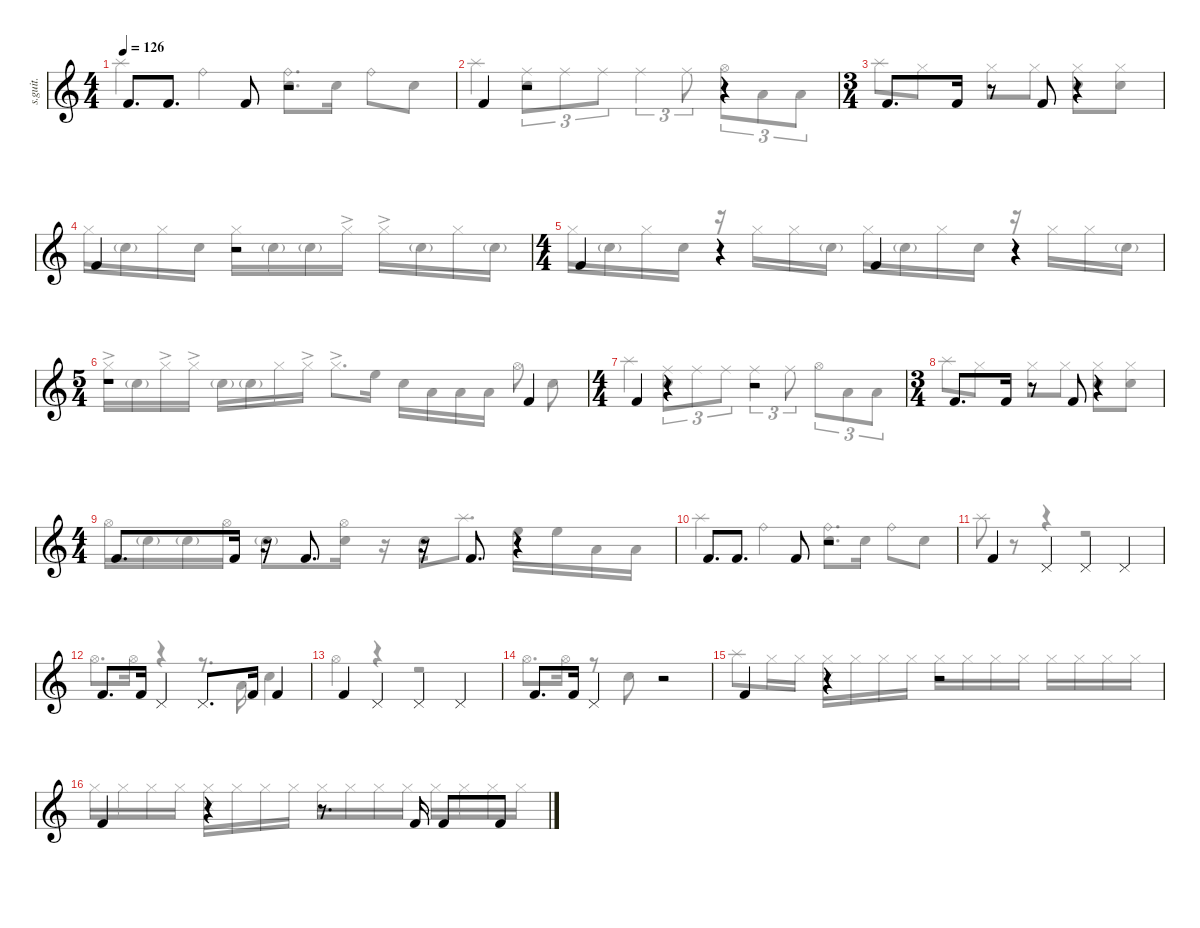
\defaultSystemsLayout 4
\hideDynamics
\bracketExtendMode nobrackets
\track ("Percussion" "s.guit.") {instrument percussion}
\staff {score}
\articulation defaults
\voice
\ts (4 4)
\tempo 126
\clef g2
\ks c "Kick (hit) 2".8{d lyrics (0 "") lyrics (1 "") lyrics (2 "") lyrics (3 "") lyrics (4 "") dy mf} "Kick (hit) 2".8{d lyrics (0 "") lyrics (1 "") lyrics (2 "") lyrics (3 "") lyrics (4 "")} "Kick (hit) 2".8{lyrics (0 "") lyrics (1 "") lyrics (2 "") lyrics (3 "") lyrics (4 "")}
r.2 |
"Kick (hit) 2".4{lyrics (0 "") lyrics (1 "") lyrics (2 "") lyrics (3 "") lyrics (4 "")} r.2 r.4 |
\ts (3 4)
\beaming (8 2 2 2 2)
"Kick (hit) 2".8{d lyrics (0 "") lyrics (1 "") lyrics (2 "") lyrics (3 "") lyrics (4 "")} "Kick (hit) 2".16{lyrics (0 "") lyrics (1 "") lyrics (2 "") lyrics (3 "") lyrics (4 "")} r.8 "Kick (hit) 2".8{lyrics (0 "") lyrics (1 "") lyrics (2 "") lyrics (3 "") lyrics (4 "")} r.4 |
"Kick (hit) 2".4{lyrics (0 "") lyrics (1 "") lyrics (2 "") lyrics (3 "") lyrics (4 "")} r.2 |
\ts (4 4)
\beaming (8 2 2 2 2)
"Kick (hit) 2".4{lyrics (0 "") lyrics (1 "") lyrics (2 "") lyrics (3 "") lyrics (4 "")} r.4 "Kick (hit) 2".4{lyrics (0 "") lyrics (1 "") lyrics (2 "") lyrics (3 "") lyrics (4 "")} r.4 |
\ts (5 4)
\beaming (8 2 2 2 2)
r.1 "Kick (hit) 2".4{lyrics (0 "") lyrics (1 "") lyrics (2 "") lyrics (3 "") lyrics (4 "")} |
\ts (4 4)
\beaming (8 2 2 2 2)
"Kick (hit) 2".4{lyrics (0 "") lyrics (1 "") lyrics (2 "") lyrics (3 "") lyrics (4 "")} r.4 r.2 |
\ts (3 4)
\beaming (8 2 2 2 2)
"Kick (hit) 2".8{d lyrics (0 "") lyrics (1 "") lyrics (2 "") lyrics (3 "") lyrics (4 "")} "Kick (hit) 2".16{lyrics (0 "") lyrics (1 "") lyrics (2 "") lyrics (3 "") lyrics (4 "")} r.8 "Kick (hit) 2".8{lyrics (0 "") lyrics (1 "") lyrics (2 "") lyrics (3 "") lyrics (4 "")} r.4 |
\ts (4 4)
\beaming (8 2 2 2 2)
"Kick (hit) 2".8{d lyrics (0 "") lyrics (1 "") lyrics (2 "") lyrics (3 "") lyrics (4 "")} "Kick (hit) 2".16{lyrics (0 "") lyrics (1 "") lyrics (2 "") lyrics (3 "") lyrics (4 "")} r.16 "Kick (hit) 2".8{d lyrics (0 "") lyrics (1 "") lyrics (2 "") lyrics (3 "") lyrics (4 "")} r.16 "Kick (hit) 2".8{d lyrics (0 "") lyrics (1 "") lyrics (2 "") lyrics (3 "") lyrics (4 "")} r.4 |
"Kick (hit) 2".8{d lyrics (0 "") lyrics (1 "") lyrics (2 "") lyrics (3 "") lyrics (4 "")} "Kick (hit) 2".8{d lyrics (0 "") lyrics (1 "") lyrics (2 "") lyrics (3 "") lyrics (4 "")} "Kick (hit) 2".8{lyrics (0 "") lyrics (1 "") lyrics (2 "") lyrics (3 "") lyrics (4 "")} r.2 |
"Kick (hit) 2".4{lyrics (0 "") lyrics (1 "") lyrics (2 "") lyrics (3 "") lyrics (4 "")} "Pedal Hi-Hat (hit)".4{lyrics (0 "") lyrics (1 "") lyrics (2 "") lyrics (3 "") lyrics (4 "")} "Pedal Hi-Hat (hit)".4{lyrics (0 "") lyrics (1 "") lyrics (2 "") lyrics (3 "") lyrics (4 "")} "Pedal Hi-Hat (hit)".4{lyrics (0 "") lyrics (1 "") lyrics (2 "") lyrics (3 "") lyrics (4 "")} |
"Kick (hit) 2".8{d lyrics (0 "") lyrics (1 "") lyrics (2 "") lyrics (3 "") lyrics (4 "")} "Kick (hit) 2".16{lyrics (0 "") lyrics (1 "") lyrics (2 "") lyrics (3 "") lyrics (4 "")} "Pedal Hi-Hat (hit)".4{lyrics (0 "") lyrics (1 "") lyrics (2 "") lyrics (3 "") lyrics (4 "")} "Pedal Hi-Hat (hit)".8{d lyrics (0 "") lyrics (1 "") lyrics (2 "") lyrics (3 "") lyrics (4 "")} "Kick (hit) 2".16{lyrics (0 "") lyrics (1 "") lyrics (2 "") lyrics (3 "") lyrics (4 "")} "Kick (hit) 2".4{lyrics (0 "") lyrics (1 "") lyrics (2 "") lyrics (3 "") lyrics (4 "")} |
"Kick (hit) 2".4{lyrics (0 "") lyrics (1 "") lyrics (2 "") lyrics (3 "") lyrics (4 "")} "Pedal Hi-Hat (hit)".4{lyrics (0 "") lyrics (1 "") lyrics (2 "") lyrics (3 "") lyrics (4 "")} "Pedal Hi-Hat (hit)".4{lyrics (0 "") lyrics (1 "") lyrics (2 "") lyrics (3 "") lyrics (4 "")} "Pedal Hi-Hat (hit)".4{lyrics (0 "") lyrics (1 "") lyrics (2 "") lyrics (3 "") lyrics (4 "")} |
"Kick (hit) 2".8{d lyrics (0 "") lyrics (1 "") lyrics (2 "") lyrics (3 "") lyrics (4 "")} "Kick (hit) 2".16{lyrics (0 "") lyrics (1 "") lyrics (2 "") lyrics (3 "") lyrics (4 "")} "Pedal Hi-Hat (hit)".4{lyrics (0 "") lyrics (1 "") lyrics (2 "") lyrics (3 "") lyrics (4 "")} r.2 |
"Kick (hit) 2".4{lyrics (0 "") lyrics (1 "") lyrics (2 "") lyrics (3 "") lyrics (4 "")} r.4 r.2 |
"Kick (hit) 2".4{lyrics (0 "") lyrics (1 "") lyrics (2 "") lyrics (3 "") lyrics (4 "")} r.4 r.8{d} "Kick (hit) 2".16{lyrics (0 "") lyrics (1 "") lyrics (2 "") lyrics (3 "") lyrics (4 "")} "Kick (hit) 2".8{lyrics (0 "") lyrics (1 "") lyrics (2 "") lyrics (3 "") lyrics (4 "")} "Kick (hit) 2".8{lyrics (0 "") lyrics (1 "") lyrics (2 "") lyrics (3 "") lyrics (4 "")}
\voice
\clef g2
\ottava regular
\simile none
\ks c "Splash (hit)".4{lyrics (0 "") lyrics (1 "") lyrics (2 "") lyrics (3 "") lyrics (4 "") dy mf} "Ride (bell)".4{lyrics (0 "") lyrics (1 "") lyrics (2 "") lyrics (3 "") lyrics (4 "")}
("Ride (bell)" "Snare (hit) 2").8{d lyrics (0 "") lyrics (1 "") lyrics (2 "") lyrics (3 "") lyrics (4 "")} "Snare (hit) 2".16{lyrics (0 "") lyrics (1 "") lyrics (2 "") lyrics (3 "") lyrics (4 "")} "Ride (bell)".8{lyrics (0 "") lyrics (1 "") lyrics (2 "") lyrics (3 "") lyrics (4 "")} "Snare (hit) 2".8{lyrics (0 "") lyrics (1 "") lyrics (2 "") lyrics (3 "") lyrics (4 "")} |
"Splash (hit)".4{lyrics (0 "") lyrics (1 "") lyrics (2 "") lyrics (3 "") lyrics (4 "")} ("Ride (middle)" "Snare (hit) 2").8{tu (3 2) lyrics (0 "") lyrics (1 "") lyrics (2 "") lyrics (3 "") lyrics (4 "")} "Ride (middle)".8{tu (3 2) lyrics (0 "") lyrics (1 "") lyrics (2 "") lyrics (3 "") lyrics (4 "")} "Ride (middle)".8{tu (3 2) lyrics (0 "") lyrics (1 "") lyrics (2 "") lyrics (3 "") lyrics (4 "")} "Ride (middle)".4{tu (3 2) lyrics (0 "") lyrics (1 "") lyrics (2 "") lyrics (3 "") lyrics (4 "")} "Ride (middle)".8{tu (3 2) lyrics (0 "") lyrics (1 "") lyrics (2 "") lyrics (3 "") lyrics (4 "")} "Hi-Hat (open)".8{tu (3 2) lyrics (0 "") lyrics (1 "") lyrics (2 "") lyrics (3 "") lyrics (4 "")} "Low Tom (hit)".8{tu (3 2) lyrics (0 "") lyrics (1 "") lyrics (2 "") lyrics (3 "") lyrics (4 "")} "Low Tom (hit)".8{tu (3 2) lyrics (0 "") lyrics (1 "") lyrics (2 "") lyrics (3 "") lyrics (4 "")} |
"Splash (hit)".8{lyrics (0 "") lyrics (1 "") lyrics (2 "") lyrics (3 "") lyrics (4 "")} "Hi-Hat (closed)".8{lyrics (0 "") lyrics (1 "") lyrics (2 "") lyrics (3 "") lyrics (4 "")} "Hi-Hat (closed)".8{lyrics (0 "") lyrics (1 "") lyrics (2 "") lyrics (3 "") lyrics (4 "")} "Hi-Hat (closed)".8{lyrics (0 "") lyrics (1 "") lyrics (2 "") lyrics (3 "") lyrics (4 "")} ("Hi-Hat (closed)" "Snare (hit) 2").8{lyrics (0 "") lyrics (1 "") lyrics (2 "") lyrics (3 "") lyrics (4 "")} ("Hi-Hat (closed)" "Snare (hit) 2").8{lyrics (0 "") lyrics (1 "") lyrics (2 "") lyrics (3 "") lyrics (4 "")} |
"Hi-Hat (closed)".16{lyrics (0 "") lyrics (1 "") lyrics (2 "") lyrics (3 "") lyrics (4 "")} "Snare (hit) 2"{g}.16{lyrics (0 "") lyrics (1 "") lyrics (2 "") lyrics (3 "") lyrics (4 "")} "Hi-Hat (closed)".16{lyrics (0 "") lyrics (1 "") lyrics (2 "") lyrics (3 "") lyrics (4 "")} "Snare (hit) 2".16{lyrics (0 "") lyrics (1 "") lyrics (2 "") lyrics (3 "") lyrics (4 "")} "Hi-Hat (closed)".16{lyrics (0 "") lyrics (1 "") lyrics (2 "") lyrics (3 "") lyrics (4 "")} "Snare (hit) 2"{g}.16{lyrics (0 "") lyrics (1 "") lyrics (2 "") lyrics (3 "") lyrics (4 "")} "Snare (hit) 2"{g}.16{lyrics (0 "") lyrics (1 "") lyrics (2 "") lyrics (3 "") lyrics (4 "")} "Hi-Hat (closed)"{ac}.16{lyrics (0 "") lyrics (1 "") lyrics (2 "") lyrics (3 "") lyrics (4 "")} "Hi-Hat (closed)"{ac}.16{lyrics (0 "") lyrics (1 "") lyrics (2 "") lyrics (3 "") lyrics (4 "")} "Snare (hit) 2"{g}.16{lyrics (0 "") lyrics (1 "") lyrics (2 "") lyrics (3 "") lyrics (4 "")} "Hi-Hat (closed)".16{lyrics (0 "") lyrics (1 "") lyrics (2 "") lyrics (3 "") lyrics (4 "")} "Snare (hit) 2"{g}.16{lyrics (0 "") lyrics (1 "") lyrics (2 "") lyrics (3 "") lyrics (4 "")} |
"Hi-Hat (closed)".16{lyrics (0 "") lyrics (1 "") lyrics (2 "") lyrics (3 "") lyrics (4 "")} "Snare (hit) 2"{g}.16{lyrics (0 "") lyrics (1 "") lyrics (2 "") lyrics (3 "") lyrics (4 "")} "Hi-Hat (closed)".16{lyrics (0 "") lyrics (1 "") lyrics (2 "") lyrics (3 "") lyrics (4 "")} "Snare (hit) 2".16{lyrics (0 "") lyrics (1 "") lyrics (2 "") lyrics (3 "") lyrics (4 "")} r.16 "Hi-Hat (closed)".16{lyrics (0 "") lyrics (1 "") lyrics (2 "") lyrics (3 "") lyrics (4 "")} "Hi-Hat (closed)".16{lyrics (0 "") lyrics (1 "") lyrics (2 "") lyrics (3 "") lyrics (4 "")} "Snare (hit) 2"{g}.16{lyrics (0 "") lyrics (1 "") lyrics (2 "") lyrics (3 "") lyrics (4 "")} "Hi-Hat (closed)".16{lyrics (0 "") lyrics (1 "") lyrics (2 "") lyrics (3 "") lyrics (4 "")} "Snare (hit) 2"{g}.16{lyrics (0 "") lyrics (1 "") lyrics (2 "") lyrics (3 "") lyrics (4 "")} "Hi-Hat (closed)".16{lyrics (0 "") lyrics (1 "") lyrics (2 "") lyrics (3 "") lyrics (4 "")} "Snare (hit) 2".16{lyrics (0 "") lyrics (1 "") lyrics (2 "") lyrics (3 "") lyrics (4 "")} r.16 "Hi-Hat (closed)".16{lyrics (0 "") lyrics (1 "") lyrics (2 "") lyrics (3 "") lyrics (4 "")} "Hi-Hat (closed)".16{lyrics (0 "") lyrics (1 "") lyrics (2 "") lyrics (3 "") lyrics (4 "")} "Snare (hit) 2"{g}.16{lyrics (0 "") lyrics (1 "") lyrics (2 "") lyrics (3 "") lyrics (4 "")} |
"Hi-Hat (closed)"{ac}.16{lyrics (0 "") lyrics (1 "") lyrics (2 "") lyrics (3 "") lyrics (4 "")} "Snare (hit) 2"{g}.16{lyrics (0 "") lyrics (1 "") lyrics (2 "") lyrics (3 "") lyrics (4 "")} "Hi-Hat (closed)"{ac}.16{lyrics (0 "") lyrics (1 "") lyrics (2 "") lyrics (3 "") lyrics (4 "")} "Hi-Hat (closed)"{ac}.16{lyrics (0 "") lyrics (1 "") lyrics (2 "") lyrics (3 "") lyrics (4 "")} "Snare (hit) 2"{g}.16{lyrics (0 "") lyrics (1 "") lyrics (2 "") lyrics (3 "") lyrics (4 "")} "Snare (hit) 2"{g}.16{lyrics (0 "") lyrics (1 "") lyrics (2 "") lyrics (3 "") lyrics (4 "")} "Hi-Hat (closed)".16{lyrics (0 "") lyrics (1 "") lyrics (2 "") lyrics (3 "") lyrics (4 "")} "Hi-Hat (closed)"{ac}.16{lyrics (0 "") lyrics (1 "") lyrics (2 "") lyrics (3 "") lyrics (4 "")} "Hi-Hat (closed)"{ac}.8{d lyrics (0 "") lyrics (1 "") lyrics (2 "") lyrics (3 "") lyrics (4 "")} "High Floor Tom (hit)".16{lyrics (0 "") lyrics (1 "") lyrics (2 "") lyrics (3 "") lyrics (4 "")} "Snare (hit) 2".16{lyrics (0 "") lyrics (1 "") lyrics (2 "") lyrics (3 "") lyrics (4 "")} "Low Tom (hit)".16{lyrics (0 "") lyrics (1 "") lyrics (2 "") lyrics (3 "") lyrics (4 "")} "Low Tom (hit)".16{lyrics (0 "") lyrics (1 "") lyrics (2 "") lyrics (3 "") lyrics (4 "")} "Low Tom (hit)".16{lyrics (0 "") lyrics (1 "") lyrics (2 "") lyrics (3 "") lyrics (4 "")} "Hi-Hat (open)".8{lyrics (0 "") lyrics (1 "") lyrics (2 "") lyrics (3 "") lyrics (4 "")} "Snare (hit) 2".8{lyrics (0 "") lyrics (1 "") lyrics (2 "") lyrics (3 "") lyrics (4 "")} |
"Splash (hit)".4{lyrics (0 "") lyrics (1 "") lyrics (2 "") lyrics (3 "") lyrics (4 "")} ("Ride (middle)" "Snare (hit) 2").8{tu (3 2) lyrics (0 "") lyrics (1 "") lyrics (2 "") lyrics (3 "") lyrics (4 "")} "Ride (middle)".8{tu (3 2) lyrics (0 "") lyrics (1 "") lyrics (2 "") lyrics (3 "") lyrics (4 "")} "Ride (middle)".8{tu (3 2) lyrics (0 "") lyrics (1 "") lyrics (2 "") lyrics (3 "") lyrics (4 "")} "Ride (middle)".4{tu (3 2) lyrics (0 "") lyrics (1 "") lyrics (2 "") lyrics (3 "") lyrics (4 "")} "Ride (middle)".8{tu (3 2) lyrics (0 "") lyrics (1 "") lyrics (2 "") lyrics (3 "") lyrics (4 "")} "Hi-Hat (open)".8{tu (3 2) lyrics (0 "") lyrics (1 "") lyrics (2 "") lyrics (3 "") lyrics (4 "")} "Low Tom (hit)".8{tu (3 2) lyrics (0 "") lyrics (1 "") lyrics (2 "") lyrics (3 "") lyrics (4 "")} "Low Tom (hit)".8{tu (3 2) lyrics (0 "") lyrics (1 "") lyrics (2 "") lyrics (3 "") lyrics (4 "")} |
"Splash (hit)".8{lyrics (0 "") lyrics (1 "") lyrics (2 "") lyrics (3 "") lyrics (4 "")} "Hi-Hat (closed)".8{lyrics (0 "") lyrics (1 "") lyrics (2 "") lyrics (3 "") lyrics (4 "")} "Hi-Hat (closed)".8{lyrics (0 "") lyrics (1 "") lyrics (2 "") lyrics (3 "") lyrics (4 "")} "Hi-Hat (closed)".8{lyrics (0 "") lyrics (1 "") lyrics (2 "") lyrics (3 "") lyrics (4 "")} ("Hi-Hat (closed)" "Snare (hit) 2").8{lyrics (0 "") lyrics (1 "") lyrics (2 "") lyrics (3 "") lyrics (4 "")} ("Hi-Hat (closed)" "Snare (hit) 2").8{lyrics (0 "") lyrics (1 "") lyrics (2 "") lyrics (3 "") lyrics (4 "")} |
"Hi-Hat (open)".16{lyrics (0 "") lyrics (1 "") lyrics (2 "") lyrics (3 "") lyrics (4 "")} "Snare (hit) 2"{g}.16{lyrics (0 "") lyrics (1 "") lyrics (2 "") lyrics (3 "") lyrics (4 "")} "Snare (hit) 2"{g}.16{lyrics (0 "") lyrics (1 "") lyrics (2 "") lyrics (3 "") lyrics (4 "")} "Hi-Hat (open)".16{lyrics (0 "") lyrics (1 "") lyrics (2 "") lyrics (3 "") lyrics (4 "")} "Snare (hit) 2"{g}.8{lyrics (0 "") lyrics (1 "") lyrics (2 "") lyrics (3 "") lyrics (4 "")} ("Hi-Hat (open)" "Snare (hit) 2").16{lyrics (0 "") lyrics (1 "") lyrics (2 "") lyrics (3 "") lyrics (4 "")} r.16 "Snare (hit) 2".16{lyrics (0 "") lyrics (1 "") lyrics (2 "") lyrics (3 "") lyrics (4 "")} "Splash (hit)".8{d lyrics (0 "") lyrics (1 "") lyrics (2 "") lyrics (3 "") lyrics (4 "")} "High Floor Tom (hit)".16{lyrics (0 "") lyrics (1 "") lyrics (2 "") lyrics (3 "") lyrics (4 "")} "High Floor Tom (hit)".16{lyrics (0 "") lyrics (1 "") lyrics (2 "") lyrics (3 "") lyrics (4 "")} "Low Tom (hit)".16{lyrics (0 "") lyrics (1 "") lyrics (2 "") lyrics (3 "") lyrics (4 "")} "Low Tom (hit)".16{lyrics (0 "") lyrics (1 "") lyrics (2 "") lyrics (3 "") lyrics (4 "")} |
"Splash (hit)".4{lyrics (0 "") lyrics (1 "") lyrics (2 "") lyrics (3 "") lyrics (4 "")} "Ride (bell)".4{lyrics (0 "") lyrics (1 "") lyrics (2 "") lyrics (3 "") lyrics (4 "")} ("Ride (bell)" "Snare (hit) 2").8{d lyrics (0 "") lyrics (1 "") lyrics (2 "") lyrics (3 "") lyrics (4 "")} "Snare (hit) 2".16{lyrics (0 "") lyrics (1 "") lyrics (2 "") lyrics (3 "") lyrics (4 "")} "Ride (bell)".8{lyrics (0 "") lyrics (1 "") lyrics (2 "") lyrics (3 "") lyrics (4 "")} "Snare (hit) 2".8{lyrics (0 "") lyrics (1 "") lyrics (2 "") lyrics (3 "") lyrics (4 "")} |
"Splash (hit)".8{lyrics (0 "") lyrics (1 "") lyrics (2 "") lyrics (3 "") lyrics (4 "")} r.8 r.4 r.2 |
"Hi-Hat (open)".8{d lyrics (0 "") lyrics (1 "") lyrics (2 "") lyrics (3 "") lyrics (4 "")} "Hi-Hat (open)".16{lyrics (0 "") lyrics (1 "") lyrics (2 "") lyrics (3 "") lyrics (4 "")} r.4 r.8{d} "Low Tom (hit)".16{lyrics (0 "") lyrics (1 "") lyrics (2 "") lyrics (3 "") lyrics (4 "")} "Snare (hit) 2".4{lyrics (0 "") lyrics (1 "") lyrics (2 "") lyrics (3 "") lyrics (4 "")} |
"Hi-Hat (open)".4{lyrics (0 "") lyrics (1 "") lyrics (2 "") lyrics (3 "") lyrics (4 "")} r.4 r.2 |
"Hi-Hat (open)".8{d lyrics (0 "") lyrics (1 "") lyrics (2 "") lyrics (3 "") lyrics (4 "")} "Hi-Hat (open)".16{lyrics (0 "") lyrics (1 "") lyrics (2 "") lyrics (3 "") lyrics (4 "")} r.8 "Snare (hit) 2".8{lyrics (0 "") lyrics (1 "") lyrics (2 "") lyrics (3 "") lyrics (4 "")} r.2 |
"Splash (hit)".8{lyrics (0 "") lyrics (1 "") lyrics (2 "") lyrics (3 "") lyrics (4 "")} "Hi-Hat (closed)".16{lyrics (0 "") lyrics (1 "") lyrics (2 "") lyrics (3 "") lyrics (4 "")} "Hi-Hat (closed)".16{lyrics (0 "") lyrics (1 "") lyrics (2 "") lyrics (3 "") lyrics (4 "")} ("Hi-Hat (closed)" "Snare (side stick) 3").16{lyrics (0 "") lyrics (1 "") lyrics (2 "") lyrics (3 "") lyrics (4 "")} "Hi-Hat (closed)".16{lyrics (0 "") lyrics (1 "") lyrics (2 "") lyrics (3 "") lyrics (4 "")} "Hi-Hat (closed)".16{lyrics (0 "") lyrics (1 "") lyrics (2 "") lyrics (3 "") lyrics (4 "")} "Hi-Hat (closed)".16{lyrics (0 "") lyrics (1 "") lyrics (2 "") lyrics (3 "") lyrics (4 "")} "Hi-Hat (closed)".16{lyrics (0 "") lyrics (1 "") lyrics (2 "") lyrics (3 "") lyrics (4 "")} "Hi-Hat (closed)".16{lyrics (0 "") lyrics (1 "") lyrics (2 "") lyrics (3 "") lyrics (4 "")} "Hi-Hat (closed)".16{lyrics (0 "") lyrics (1 "") lyrics (2 "") lyrics (3 "") lyrics (4 "")} "Hi-Hat (closed)".16{lyrics (0 "") lyrics (1 "") lyrics (2 "") lyrics (3 "") lyrics (4 "")} "Hi-Hat (closed)".16{lyrics (0 "") lyrics (1 "") lyrics (2 "") lyrics (3 "") lyrics (4 "")} "Hi-Hat (closed)".16{lyrics (0 "") lyrics (1 "") lyrics (2 "") lyrics (3 "") lyrics (4 "")} "Hi-Hat (closed)".16{lyrics (0 "") lyrics (1 "") lyrics (2 "") lyrics (3 "") lyrics (4 "")} "Hi-Hat (closed)".16{lyrics (0 "") lyrics (1 "") lyrics (2 "") lyrics (3 "") lyrics (4 "")} |
"Hi-Hat (closed)".16{lyrics (0 "") lyrics (1 "") lyrics (2 "") lyrics (3 "") lyrics (4 "")} "Hi-Hat (closed)".16{lyrics (0 "") lyrics (1 "") lyrics (2 "") lyrics (3 "") lyrics (4 "")} "Hi-Hat (closed)".16{lyrics (0 "") lyrics (1 "") lyrics (2 "") lyrics (3 "") lyrics (4 "")} "Hi-Hat (closed)".16{lyrics (0 "") lyrics (1 "") lyrics (2 "") lyrics (3 "") lyrics (4 "")} ("Hi-Hat (closed)" "Snare (side stick) 3").16{lyrics (0 "") lyrics (1 "") lyrics (2 "") lyrics (3 "") lyrics (4 "")} "Hi-Hat (closed)".16{lyrics (0 "") lyrics (1 "") lyrics (2 "") lyrics (3 "") lyrics (4 "")} "Hi-Hat (closed)".16{lyrics (0 "") lyrics (1 "") lyrics (2 "") lyrics (3 "") lyrics (4 "")} "Hi-Hat (closed)".16{lyrics (0 "") lyrics (1 "") lyrics (2 "") lyrics (3 "") lyrics (4 "")} "Hi-Hat (closed)".16{lyrics (0 "") lyrics (1 "") lyrics (2 "") lyrics (3 "") lyrics (4 "")} "Hi-Hat (closed)".16{lyrics (0 "") lyrics (1 "") lyrics (2 "") lyrics (3 "") lyrics (4 "")} "Hi-Hat (closed)".16{lyrics (0 "") lyrics (1 "") lyrics (2 "") lyrics (3 "") lyrics (4 "")} "Hi-Hat (closed)".16{lyrics (0 "") lyrics (1 "") lyrics (2 "") lyrics (3 "") lyrics (4 "")} "Hi-Hat (closed)".16{lyrics (0 "") lyrics (1 "") lyrics (2 "") lyrics (3 "") lyrics (4 "")} "Hi-Hat (closed)".16{lyrics (0 "") lyrics (1 "") lyrics (2 "") lyrics (3 "") lyrics (4 "")} "Hi-Hat (closed)".16{lyrics (0 "") lyrics (1 "") lyrics (2 "") lyrics (3 "") lyrics (4 "")} "Hi-Hat (closed)".16{lyrics (0 "") lyrics (1 "") lyrics (2 "") lyrics (3 "") lyrics (4 "")}
